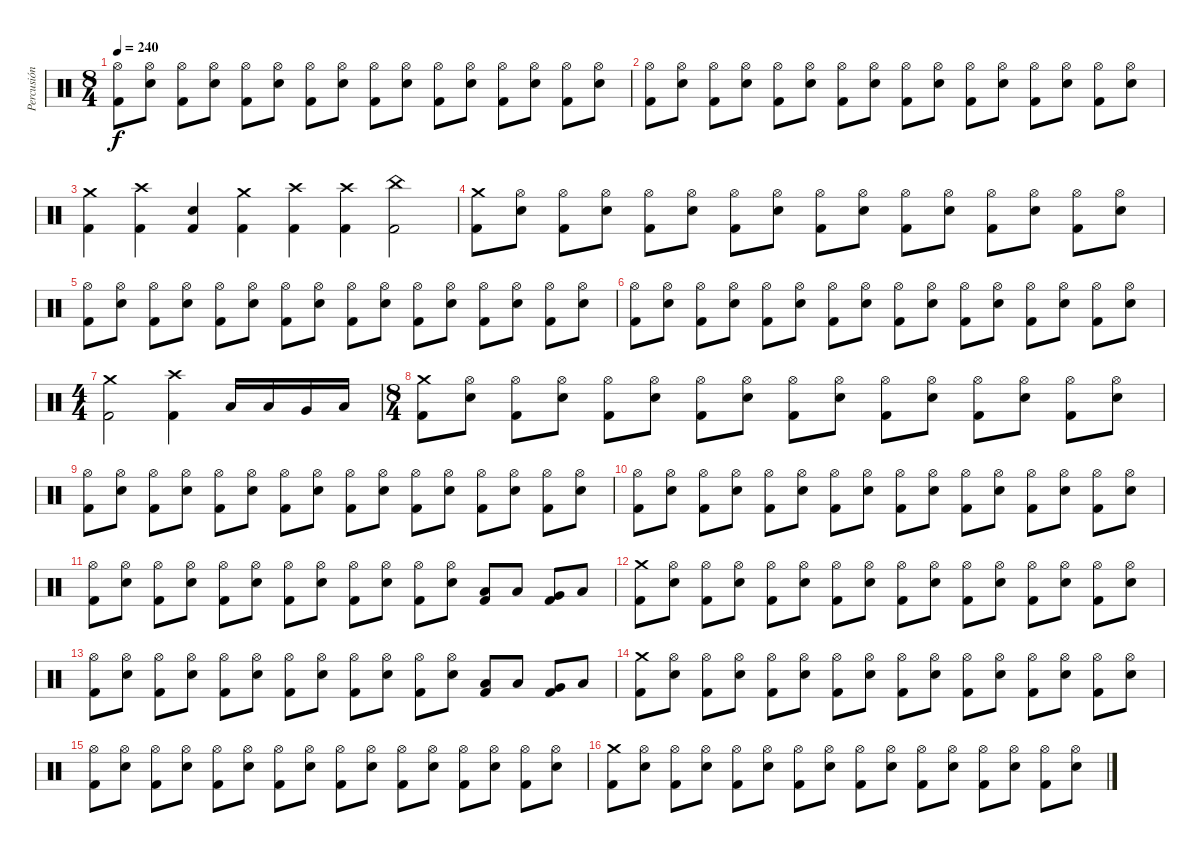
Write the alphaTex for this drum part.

\track ("Percusión" "Percusión") {instrument percussion}
\staff {score}
\articulation defaults
\ts (8 4)
\tempo 240
\clef neutral
\ks c
("Hi-Hat (open)" "Kick (hit) 2").8{dy f} ("Hi-Hat (open)" "Electric Snare (hit)").8 ("Hi-Hat (open)" "Kick (hit) 2").8 ("Hi-Hat (open)" "Electric Snare (hit)").8 ("Hi-Hat (open)" "Kick (hit) 2").8 ("Hi-Hat (open)" "Electric Snare (hit)").8 ("Hi-Hat (open)" "Kick (hit) 2").8 ("Hi-Hat (open)" "Electric Snare (hit)").8 ("Hi-Hat (open)" "Kick (hit) 2").8 ("Hi-Hat (open)" "Electric Snare (hit)").8 ("Hi-Hat (open)" "Kick (hit) 2").8 ("Hi-Hat (open)" "Electric Snare (hit)").8 ("Hi-Hat (open)" "Kick (hit) 2").8 ("Hi-Hat (open)" "Electric Snare (hit)").8 ("Hi-Hat (open)" "Kick (hit) 2").8 ("Hi-Hat (open)" "Electric Snare (hit)").8 |
("Hi-Hat (open)" "Kick (hit) 2").8 ("Hi-Hat (open)" "Electric Snare (hit)").8 ("Hi-Hat (open)" "Kick (hit) 2").8 ("Hi-Hat (open)" "Electric Snare (hit)").8 ("Hi-Hat (open)" "Kick (hit) 2").8 ("Hi-Hat (open)" "Electric Snare (hit)").8 ("Hi-Hat (open)" "Kick (hit) 2").8 ("Hi-Hat (open)" "Electric Snare (hit)").8 ("Hi-Hat (open)" "Kick (hit) 2").8 ("Hi-Hat (open)" "Electric Snare (hit)").8 ("Hi-Hat (open)" "Kick (hit) 2").8 ("Hi-Hat (open)" "Electric Snare (hit)").8 ("Hi-Hat (open)" "Kick (hit) 2").8 ("Hi-Hat (open)" "Electric Snare (hit)").8 ("Hi-Hat (open)" "Kick (hit) 2").8 ("Hi-Hat (open)" "Electric Snare (hit)").8 |
("Crash medium (hit)" "Kick (hit) 2").4 ("Crash high (hit)" "Kick (hit) 2").4 ("Electric Snare (hit)" "Kick (hit) 2").4 ("Crash medium (hit)" "Kick (hit) 2").4 ("Crash high (hit)" "Kick (hit) 2").4 ("Crash high (hit)" "Kick (hit) 2").4 ("China (hit)" "Kick (hit) 2").2 |
("Crash medium (hit)" "Kick (hit) 2").8 ("Hi-Hat (open)" "Electric Snare (hit)").8 ("Hi-Hat (open)" "Kick (hit) 2").8 ("Hi-Hat (open)" "Electric Snare (hit)").8 ("Hi-Hat (open)" "Kick (hit) 2").8 ("Hi-Hat (open)" "Electric Snare (hit)").8 ("Hi-Hat (open)" "Kick (hit) 2").8 ("Hi-Hat (open)" "Electric Snare (hit)").8 ("Hi-Hat (open)" "Kick (hit) 2").8 ("Hi-Hat (open)" "Electric Snare (hit)").8 ("Hi-Hat (open)" "Kick (hit) 2").8 ("Hi-Hat (open)" "Electric Snare (hit)").8 ("Hi-Hat (open)" "Kick (hit) 2").8 ("Hi-Hat (open)" "Electric Snare (hit)").8 ("Hi-Hat (open)" "Kick (hit) 2").8 ("Hi-Hat (open)" "Electric Snare (hit)").8 |
("Hi-Hat (open)" "Kick (hit) 2").8 ("Hi-Hat (open)" "Electric Snare (hit)").8 ("Hi-Hat (open)" "Kick (hit) 2").8 ("Hi-Hat (open)" "Electric Snare (hit)").8 ("Hi-Hat (open)" "Kick (hit) 2").8 ("Hi-Hat (open)" "Electric Snare (hit)").8 ("Hi-Hat (open)" "Kick (hit) 2").8 ("Hi-Hat (open)" "Electric Snare (hit)").8 ("Hi-Hat (open)" "Kick (hit) 2").8 ("Hi-Hat (open)" "Electric Snare (hit)").8 ("Hi-Hat (open)" "Kick (hit) 2").8 ("Hi-Hat (open)" "Electric Snare (hit)").8 ("Hi-Hat (open)" "Kick (hit) 2").8 ("Hi-Hat (open)" "Electric Snare (hit)").8 ("Hi-Hat (open)" "Kick (hit) 2").8 ("Hi-Hat (open)" "Electric Snare (hit)").8 |
("Hi-Hat (open)" "Kick (hit) 2").8 ("Hi-Hat (open)" "Electric Snare (hit)").8 ("Hi-Hat (open)" "Kick (hit) 2").8 ("Hi-Hat (open)" "Electric Snare (hit)").8 ("Hi-Hat (open)" "Kick (hit) 2").8 ("Hi-Hat (open)" "Electric Snare (hit)").8 ("Hi-Hat (open)" "Kick (hit) 2").8 ("Hi-Hat (open)" "Electric Snare (hit)").8 ("Hi-Hat (open)" "Kick (hit) 2").8 ("Hi-Hat (open)" "Electric Snare (hit)").8 ("Hi-Hat (open)" "Kick (hit) 2").8 ("Hi-Hat (open)" "Electric Snare (hit)").8 ("Hi-Hat (open)" "Kick (hit) 2").8 ("Hi-Hat (open)" "Electric Snare (hit)").8 ("Hi-Hat (open)" "Kick (hit) 2").8 ("Hi-Hat (open)" "Electric Snare (hit)").8 |
\ts (4 4)
("Crash medium (hit)" "Kick (hit) 2").2 ("Crash high (hit)" "Kick (hit) 2").4 "Low Tom (hit)".16 "Low Tom (hit)".16 "Very Low Tom (hit)".16 "Low Floor Tom (hit)".16 |
\ts (8 4)
("Crash medium (hit)" "Kick (hit) 2").8 ("Hi-Hat (open)" "Electric Snare (hit)").8 ("Hi-Hat (open)" "Kick (hit) 2").8 ("Hi-Hat (open)" "Electric Snare (hit)").8 ("Hi-Hat (open)" "Kick (hit) 2").8 ("Hi-Hat (open)" "Electric Snare (hit)").8 ("Hi-Hat (open)" "Kick (hit) 2").8 ("Hi-Hat (open)" "Electric Snare (hit)").8 ("Hi-Hat (open)" "Kick (hit) 2").8 ("Hi-Hat (open)" "Electric Snare (hit)").8 ("Hi-Hat (open)" "Kick (hit) 2").8 ("Hi-Hat (open)" "Electric Snare (hit)").8 ("Hi-Hat (open)" "Kick (hit) 2").8 ("Hi-Hat (open)" "Electric Snare (hit)").8 ("Hi-Hat (open)" "Kick (hit) 2").8 ("Hi-Hat (open)" "Electric Snare (hit)").8 |
("Hi-Hat (open)" "Kick (hit) 2").8 ("Hi-Hat (open)" "Electric Snare (hit)").8 ("Hi-Hat (open)" "Kick (hit) 2").8 ("Hi-Hat (open)" "Electric Snare (hit)").8 ("Hi-Hat (open)" "Kick (hit) 2").8 ("Hi-Hat (open)" "Electric Snare (hit)").8 ("Hi-Hat (open)" "Kick (hit) 2").8 ("Hi-Hat (open)" "Electric Snare (hit)").8 ("Hi-Hat (open)" "Kick (hit) 2").8 ("Hi-Hat (open)" "Electric Snare (hit)").8 ("Hi-Hat (open)" "Kick (hit) 2").8 ("Hi-Hat (open)" "Electric Snare (hit)").8 ("Hi-Hat (open)" "Kick (hit) 2").8 ("Hi-Hat (open)" "Electric Snare (hit)").8 ("Hi-Hat (open)" "Kick (hit) 2").8 ("Hi-Hat (open)" "Electric Snare (hit)").8 |
("Hi-Hat (open)" "Kick (hit) 2").8 ("Hi-Hat (open)" "Electric Snare (hit)").8 ("Hi-Hat (open)" "Kick (hit) 2").8 ("Hi-Hat (open)" "Electric Snare (hit)").8 ("Hi-Hat (open)" "Kick (hit) 2").8 ("Hi-Hat (open)" "Electric Snare (hit)").8 ("Hi-Hat (open)" "Kick (hit) 2").8 ("Hi-Hat (open)" "Electric Snare (hit)").8 ("Hi-Hat (open)" "Kick (hit) 2").8 ("Hi-Hat (open)" "Electric Snare (hit)").8 ("Hi-Hat (open)" "Kick (hit) 2").8 ("Hi-Hat (open)" "Electric Snare (hit)").8 ("Hi-Hat (open)" "Kick (hit) 2").8 ("Hi-Hat (open)" "Electric Snare (hit)").8 ("Hi-Hat (open)" "Kick (hit) 2").8 ("Hi-Hat (open)" "Electric Snare (hit)").8 |
("Hi-Hat (open)" "Kick (hit) 2").8 ("Hi-Hat (open)" "Electric Snare (hit)").8 ("Hi-Hat (open)" "Kick (hit) 2").8 ("Hi-Hat (open)" "Electric Snare (hit)").8 ("Hi-Hat (open)" "Kick (hit) 2").8 ("Hi-Hat (open)" "Electric Snare (hit)").8 ("Hi-Hat (open)" "Kick (hit) 2").8 ("Hi-Hat (open)" "Electric Snare (hit)").8 ("Hi-Hat (open)" "Kick (hit) 2").8 ("Hi-Hat (open)" "Electric Snare (hit)").8 ("Hi-Hat (open)" "Kick (hit) 2").8 ("Hi-Hat (open)" "Electric Snare (hit)").8 ("Low Tom (hit)" "Kick (hit) 2").8 "Low Tom (hit)".8 ("Very Low Tom (hit)" "Kick (hit) 2").8 "Low Floor Tom (hit)".8 |
("Crash medium (hit)" "Kick (hit) 2").8 ("Hi-Hat (open)" "Electric Snare (hit)").8 ("Hi-Hat (open)" "Kick (hit) 2").8 ("Hi-Hat (open)" "Electric Snare (hit)").8 ("Hi-Hat (open)" "Kick (hit) 2").8 ("Hi-Hat (open)" "Electric Snare (hit)").8 ("Hi-Hat (open)" "Kick (hit) 2").8 ("Hi-Hat (open)" "Electric Snare (hit)").8 ("Hi-Hat (open)" "Kick (hit) 2").8 ("Hi-Hat (open)" "Electric Snare (hit)").8 ("Hi-Hat (open)" "Kick (hit) 2").8 ("Hi-Hat (open)" "Electric Snare (hit)").8 ("Hi-Hat (open)" "Kick (hit) 2").8 ("Hi-Hat (open)" "Electric Snare (hit)").8 ("Hi-Hat (open)" "Kick (hit) 2").8 ("Hi-Hat (open)" "Electric Snare (hit)").8 |
("Hi-Hat (open)" "Kick (hit) 2").8 ("Hi-Hat (open)" "Electric Snare (hit)").8 ("Hi-Hat (open)" "Kick (hit) 2").8 ("Hi-Hat (open)" "Electric Snare (hit)").8 ("Hi-Hat (open)" "Kick (hit) 2").8 ("Hi-Hat (open)" "Electric Snare (hit)").8 ("Hi-Hat (open)" "Kick (hit) 2").8 ("Hi-Hat (open)" "Electric Snare (hit)").8 ("Hi-Hat (open)" "Kick (hit) 2").8 ("Hi-Hat (open)" "Electric Snare (hit)").8 ("Hi-Hat (open)" "Kick (hit) 2").8 ("Hi-Hat (open)" "Electric Snare (hit)").8 ("Low Tom (hit)" "Kick (hit) 2").8 "Low Tom (hit)".8 ("Very Low Tom (hit)" "Kick (hit) 2").8 "Low Floor Tom (hit)".8 |
("Crash medium (hit)" "Kick (hit) 2").8 ("Hi-Hat (open)" "Electric Snare (hit)").8 ("Hi-Hat (open)" "Kick (hit) 2").8 ("Hi-Hat (open)" "Electric Snare (hit)").8 ("Hi-Hat (open)" "Kick (hit) 2").8 ("Hi-Hat (open)" "Electric Snare (hit)").8 ("Hi-Hat (open)" "Kick (hit) 2").8 ("Hi-Hat (open)" "Electric Snare (hit)").8 ("Hi-Hat (open)" "Kick (hit) 2").8 ("Hi-Hat (open)" "Electric Snare (hit)").8 ("Hi-Hat (open)" "Kick (hit) 2").8 ("Hi-Hat (open)" "Electric Snare (hit)").8 ("Hi-Hat (open)" "Kick (hit) 2").8 ("Hi-Hat (open)" "Electric Snare (hit)").8 ("Hi-Hat (open)" "Kick (hit) 2").8 ("Hi-Hat (open)" "Electric Snare (hit)").8 |
("Hi-Hat (open)" "Kick (hit) 2").8 ("Hi-Hat (open)" "Electric Snare (hit)").8 ("Hi-Hat (open)" "Kick (hit) 2").8 ("Hi-Hat (open)" "Electric Snare (hit)").8 ("Hi-Hat (open)" "Kick (hit) 2").8 ("Hi-Hat (open)" "Electric Snare (hit)").8 ("Hi-Hat (open)" "Kick (hit) 2").8 ("Hi-Hat (open)" "Electric Snare (hit)").8 ("Hi-Hat (open)" "Kick (hit) 2").8 ("Hi-Hat (open)" "Electric Snare (hit)").8 ("Hi-Hat (open)" "Kick (hit) 2").8 ("Hi-Hat (open)" "Electric Snare (hit)").8 ("Hi-Hat (open)" "Kick (hit) 2").8 ("Hi-Hat (open)" "Electric Snare (hit)").8 ("Hi-Hat (open)" "Kick (hit) 2").8 ("Hi-Hat (open)" "Electric Snare (hit)").8 |
("Crash medium (hit)" "Kick (hit) 2").8 ("Hi-Hat (open)" "Electric Snare (hit)").8 ("Hi-Hat (open)" "Kick (hit) 2").8 ("Hi-Hat (open)" "Electric Snare (hit)").8 ("Hi-Hat (open)" "Kick (hit) 2").8 ("Hi-Hat (open)" "Electric Snare (hit)").8 ("Hi-Hat (open)" "Kick (hit) 2").8 ("Hi-Hat (open)" "Electric Snare (hit)").8 ("Hi-Hat (open)" "Kick (hit) 2").8 ("Hi-Hat (open)" "Electric Snare (hit)").8 ("Hi-Hat (open)" "Kick (hit) 2").8 ("Hi-Hat (open)" "Electric Snare (hit)").8 ("Hi-Hat (open)" "Kick (hit) 2").8 ("Hi-Hat (open)" "Electric Snare (hit)").8 ("Hi-Hat (open)" "Kick (hit) 2").8 ("Hi-Hat (open)" "Electric Snare (hit)").8
